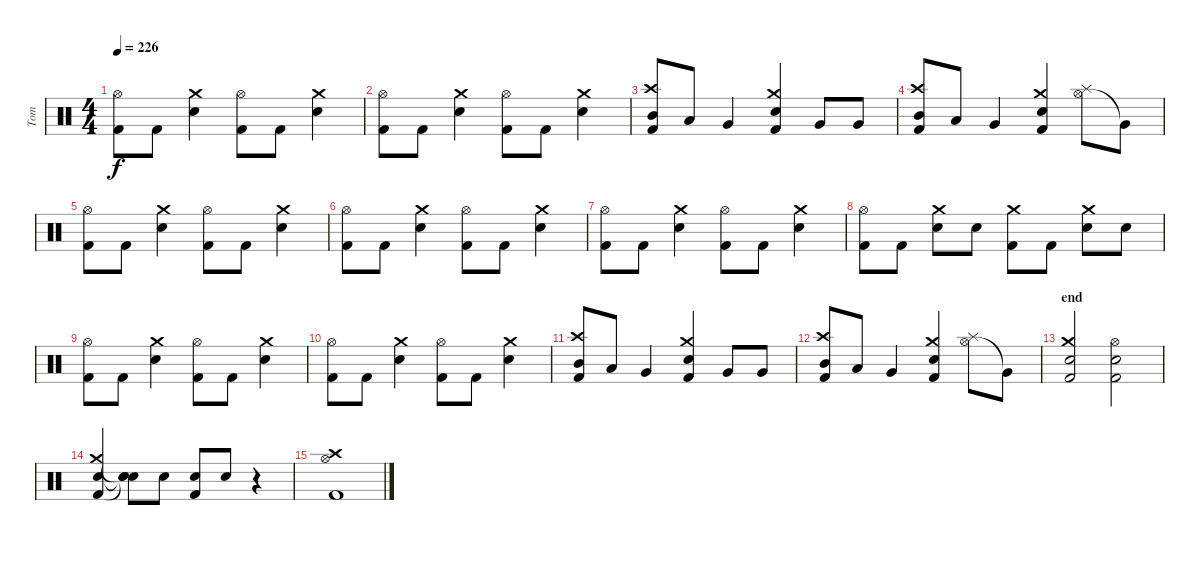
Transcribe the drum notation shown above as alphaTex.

\track ("Tom" "Tom") {instrument percussion}
\staff {score}
\articulation defaults
\ts (4 4)
\tempo 226
\clef neutral
\ks c
("Hi-Hat (open)" "Kick (hit) 2").8{dy f} "Kick (hit) 2".8 ("Crash medium (hit)" "Electric Snare (hit)").4 ("Hi-Hat (open)" "Kick (hit) 2").8 "Kick (hit) 2".8 ("Crash medium (hit)" "Electric Snare (hit)").4 |
("Hi-Hat (open)" "Kick (hit) 2").8 "Kick (hit) 2".8 ("Crash medium (hit)" "Electric Snare (hit)").4 ("Hi-Hat (open)" "Kick (hit) 2").8 "Kick (hit) 2".8 ("Crash medium (hit)" "Electric Snare (hit)").4 |
("Crash high (hit)" "Mid Tom (hit)" "Kick (hit) 2").8 "Low Tom (hit)".8 "Very Low Tom (hit)".4 ("Crash medium (hit)" "Electric Snare (hit)" "Kick (hit) 2").4 "Very Low Tom (hit)".8 "Very Low Tom (hit)".8 |
("Crash high (hit)" "Mid Tom (hit)" "Kick (hit) 2").8 "Low Tom (hit)".8 "Very Low Tom (hit)".4 ("Crash medium (hit)" "Electric Snare (hit)" "Kick (hit) 2").4 ("Hi-Hat (open)" "Splash (hit)").8 "Very Low Tom (hit)"{t}.8 |
("Hi-Hat (open)" "Kick (hit) 2").8 "Kick (hit) 2".8 ("Crash medium (hit)" "Electric Snare (hit)").4 ("Hi-Hat (open)" "Kick (hit) 2").8 "Kick (hit) 2".8 ("Crash medium (hit)" "Electric Snare (hit)").4 |
("Hi-Hat (open)" "Kick (hit) 2").8 "Kick (hit) 2".8 ("Crash medium (hit)" "Electric Snare (hit)").4 ("Hi-Hat (open)" "Kick (hit) 2").8 "Kick (hit) 2".8 ("Crash medium (hit)" "Electric Snare (hit)").4 |
("Hi-Hat (open)" "Kick (hit) 2").8 "Kick (hit) 2".8 ("Crash medium (hit)" "Electric Snare (hit)").4 ("Hi-Hat (open)" "Kick (hit) 2").8 "Kick (hit) 2".8 ("Crash medium (hit)" "Electric Snare (hit)").4 |
("Hi-Hat (open)" "Kick (hit) 2").8 "Kick (hit) 2".8 ("Crash medium (hit)" "Electric Snare (hit)").8 "Electric Snare (hit)".8 ("Crash medium (hit)" "Kick (hit) 2").8 "Kick (hit) 2".8 ("Crash medium (hit)" "Electric Snare (hit)").8 "Electric Snare (hit)".8 |
("Hi-Hat (open)" "Kick (hit) 2").8 "Kick (hit) 2".8 ("Crash medium (hit)" "Electric Snare (hit)").4 ("Hi-Hat (open)" "Kick (hit) 2").8 "Kick (hit) 2".8 ("Crash medium (hit)" "Electric Snare (hit)").4 |
("Hi-Hat (open)" "Kick (hit) 2").8 "Kick (hit) 2".8 ("Crash medium (hit)" "Electric Snare (hit)").4 ("Hi-Hat (open)" "Kick (hit) 2").8 "Kick (hit) 2".8 ("Crash medium (hit)" "Electric Snare (hit)").4 |
("Crash high (hit)" "Mid Tom (hit)" "Kick (hit) 2").8 "Low Tom (hit)".8 "Very Low Tom (hit)".4 ("Crash medium (hit)" "Electric Snare (hit)" "Kick (hit) 2").4 "Very Low Tom (hit)".8 "Very Low Tom (hit)".8 |
("Crash high (hit)" "Mid Tom (hit)" "Kick (hit) 2").8 "Low Tom (hit)".8 "Very Low Tom (hit)".4 ("Crash medium (hit)" "Electric Snare (hit)" "Kick (hit) 2").4 ("Hi-Hat (open)" "Splash (hit)").8 "Very Low Tom (hit)"{t}.8 |
\section ("" "end")
("Kick (hit) 2" "Crash medium (hit)" "Electric Snare (hit)").2 ("Kick (hit) 2" "Electric Snare (hit)" "Hi-Hat (open)").2 |
("Kick (hit) 2" "Crash medium (hit)" "Electric Snare (hit)").4 ("Snare (hit)"{t} "Electric Snare (hit)"{t} "Snare (hit)"{t}).8 "Electric Snare (hit)".8 ("Electric Snare (hit)" "Kick (hit) 2").8 "Electric Snare (hit)".8 r.4 |
("Crash high (hit)" "Kick (hit) 2" "Hi-Hat (open)").1
